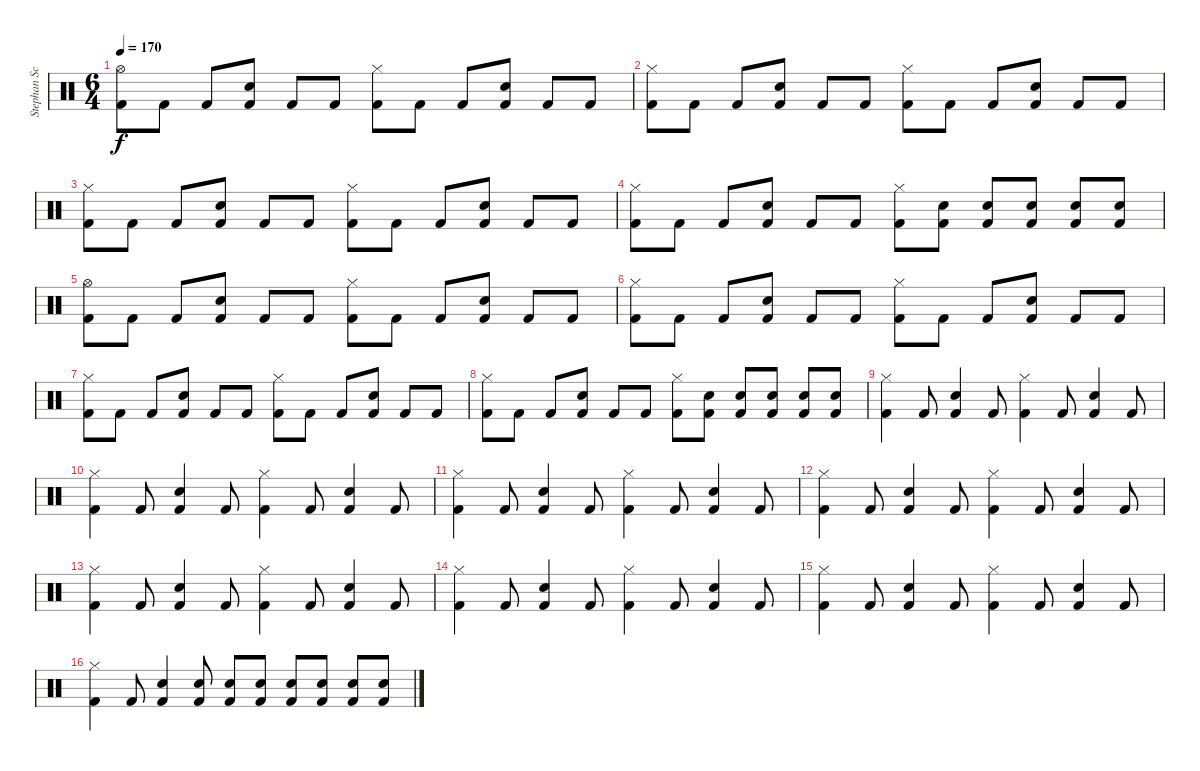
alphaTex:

\track ("Stephan Schwartzmann" "Stephan Sc") {instrument percussion}
\staff {score}
\articulation defaults
\ts (6 4)
\tempo 170
\clef neutral
\ks c
("Hi-Hat (open)" "Kick (hit) 2").8{dy f} "Kick (hit) 2".8 "Kick (hit) 2".8 ("Snare (hit) 2" "Kick (hit) 2").8 "Kick (hit) 2".8 "Kick (hit) 2".8 ("Hi-Hat (closed)" "Kick (hit) 2").8 "Kick (hit) 2".8 "Kick (hit) 2".8 ("Snare (hit) 2" "Kick (hit) 2").8 "Kick (hit) 2".8 "Kick (hit) 2".8 |
("Hi-Hat (closed)" "Kick (hit) 2").8 "Kick (hit) 2".8 "Kick (hit) 2".8 ("Snare (hit) 2" "Kick (hit) 2").8 "Kick (hit) 2".8 "Kick (hit) 2".8 ("Hi-Hat (closed)" "Kick (hit) 2").8 "Kick (hit) 2".8 "Kick (hit) 2".8 ("Snare (hit) 2" "Kick (hit) 2").8 "Kick (hit) 2".8 "Kick (hit) 2".8 |
("Hi-Hat (closed)" "Kick (hit) 2").8 "Kick (hit) 2".8 "Kick (hit) 2".8 ("Snare (hit) 2" "Kick (hit) 2").8 "Kick (hit) 2".8 "Kick (hit) 2".8 ("Hi-Hat (closed)" "Kick (hit) 2").8 "Kick (hit) 2".8 "Kick (hit) 2".8 ("Snare (hit) 2" "Kick (hit) 2").8 "Kick (hit) 2".8 "Kick (hit) 2".8 |
("Hi-Hat (closed)" "Kick (hit) 2").8 "Kick (hit) 2".8 "Kick (hit) 2".8 ("Snare (hit) 2" "Kick (hit) 2").8 "Kick (hit) 2".8 "Kick (hit) 2".8 ("Hi-Hat (closed)" "Kick (hit) 2").8 ("Snare (hit) 2" "Kick (hit) 2").8 ("Snare (hit) 2" "Kick (hit) 2").8 ("Snare (hit) 2" "Kick (hit) 2").8 ("Snare (hit) 2" "Kick (hit) 2").8 ("Snare (hit) 2" "Kick (hit) 2").8 |
("Hi-Hat (open)" "Kick (hit) 2").8 "Kick (hit) 2".8 "Kick (hit) 2".8 ("Snare (hit) 2" "Kick (hit) 2").8 "Kick (hit) 2".8 "Kick (hit) 2".8 ("Hi-Hat (closed)" "Kick (hit) 2").8 "Kick (hit) 2".8 "Kick (hit) 2".8 ("Snare (hit) 2" "Kick (hit) 2").8 "Kick (hit) 2".8 "Kick (hit) 2".8 |
("Hi-Hat (closed)" "Kick (hit) 2").8 "Kick (hit) 2".8 "Kick (hit) 2".8 ("Snare (hit) 2" "Kick (hit) 2").8 "Kick (hit) 2".8 "Kick (hit) 2".8 ("Hi-Hat (closed)" "Kick (hit) 2").8 "Kick (hit) 2".8 "Kick (hit) 2".8 ("Snare (hit) 2" "Kick (hit) 2").8 "Kick (hit) 2".8 "Kick (hit) 2".8 |
("Hi-Hat (closed)" "Kick (hit) 2").8 "Kick (hit) 2".8 "Kick (hit) 2".8 ("Snare (hit) 2" "Kick (hit) 2").8 "Kick (hit) 2".8 "Kick (hit) 2".8 ("Hi-Hat (closed)" "Kick (hit) 2").8 "Kick (hit) 2".8 "Kick (hit) 2".8 ("Snare (hit) 2" "Kick (hit) 2").8 "Kick (hit) 2".8 "Kick (hit) 2".8 |
("Hi-Hat (closed)" "Kick (hit) 2").8 "Kick (hit) 2".8 "Kick (hit) 2".8 ("Snare (hit) 2" "Kick (hit) 2").8 "Kick (hit) 2".8 "Kick (hit) 2".8 ("Hi-Hat (closed)" "Kick (hit) 2").8 ("Snare (hit) 2" "Kick (hit) 2").8 ("Snare (hit) 2" "Kick (hit) 2").8 ("Snare (hit) 2" "Kick (hit) 2").8 ("Snare (hit) 2" "Kick (hit) 2").8 ("Snare (hit) 2" "Kick (hit) 2").8 |
("Hi-Hat (closed)" "Kick (hit) 2").4 "Kick (hit) 2".8 ("Snare (hit) 2" "Kick (hit) 2").4 "Kick (hit) 2".8 ("Hi-Hat (closed)" "Kick (hit) 2").4 "Kick (hit) 2".8 ("Snare (hit) 2" "Kick (hit) 2").4 "Kick (hit) 2".8 |
("Hi-Hat (closed)" "Kick (hit) 2").4 "Kick (hit) 2".8 ("Snare (hit) 2" "Kick (hit) 2").4 "Kick (hit) 2".8 ("Hi-Hat (closed)" "Kick (hit) 2").4 "Kick (hit) 2".8 ("Snare (hit) 2" "Kick (hit) 2").4 "Kick (hit) 2".8 |
("Hi-Hat (closed)" "Kick (hit) 2").4 "Kick (hit) 2".8 ("Snare (hit) 2" "Kick (hit) 2").4 "Kick (hit) 2".8 ("Hi-Hat (closed)" "Kick (hit) 2").4 "Kick (hit) 2".8 ("Snare (hit) 2" "Kick (hit) 2").4 "Kick (hit) 2".8 |
("Hi-Hat (closed)" "Kick (hit) 2").4 "Kick (hit) 2".8 ("Snare (hit) 2" "Kick (hit) 2").4 "Kick (hit) 2".8 ("Hi-Hat (closed)" "Kick (hit) 2").4 "Kick (hit) 2".8 ("Snare (hit) 2" "Kick (hit) 2").4 "Kick (hit) 2".8 |
("Hi-Hat (closed)" "Kick (hit) 2").4 "Kick (hit) 2".8 ("Snare (hit) 2" "Kick (hit) 2").4 "Kick (hit) 2".8 ("Hi-Hat (closed)" "Kick (hit) 2").4 "Kick (hit) 2".8 ("Snare (hit) 2" "Kick (hit) 2").4 "Kick (hit) 2".8 |
("Hi-Hat (closed)" "Kick (hit) 2").4 "Kick (hit) 2".8 ("Snare (hit) 2" "Kick (hit) 2").4 "Kick (hit) 2".8 ("Hi-Hat (closed)" "Kick (hit) 2").4 "Kick (hit) 2".8 ("Snare (hit) 2" "Kick (hit) 2").4 "Kick (hit) 2".8 |
("Hi-Hat (closed)" "Kick (hit) 2").4 "Kick (hit) 2".8 ("Snare (hit) 2" "Kick (hit) 2").4 "Kick (hit) 2".8 ("Hi-Hat (closed)" "Kick (hit) 2").4 "Kick (hit) 2".8 ("Snare (hit) 2" "Kick (hit) 2").4 "Kick (hit) 2".8 |
("Hi-Hat (closed)" "Kick (hit) 2").4 "Kick (hit) 2".8 ("Snare (hit) 2" "Kick (hit) 2").4 ("Snare (hit) 2" "Kick (hit) 2").8 ("Snare (hit) 2" "Kick (hit) 2").8 ("Snare (hit) 2" "Kick (hit) 2").8 ("Snare (hit) 2" "Kick (hit) 2").8 ("Snare (hit) 2" "Kick (hit) 2").8 ("Snare (hit) 2" "Kick (hit) 2").8 ("Snare (hit) 2" "Kick (hit) 2").8
